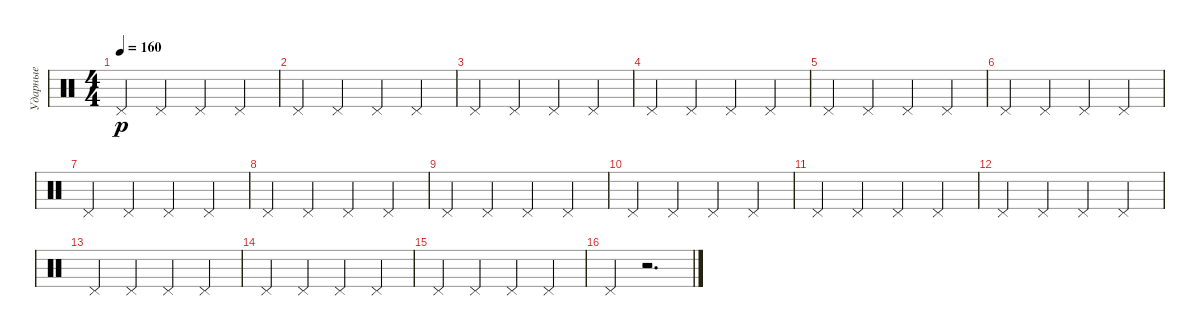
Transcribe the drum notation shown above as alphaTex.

\track ("Ударные" "Ударные") {instrument percussion}
\staff {score}
\articulation defaults
\ts (4 4)
\tempo 160
\clef neutral
\ks c "Pedal Hi-Hat (hit)".4{dy p} "Pedal Hi-Hat (hit)".4 "Pedal Hi-Hat (hit)".4 "Pedal Hi-Hat (hit)".4
|
"Pedal Hi-Hat (hit)".4 "Pedal Hi-Hat (hit)".4 "Pedal Hi-Hat (hit)".4 "Pedal Hi-Hat (hit)".4 |
"Pedal Hi-Hat (hit)".4 "Pedal Hi-Hat (hit)".4 "Pedal Hi-Hat (hit)".4 "Pedal Hi-Hat (hit)".4 |
"Pedal Hi-Hat (hit)".4 "Pedal Hi-Hat (hit)".4 "Pedal Hi-Hat (hit)".4 "Pedal Hi-Hat (hit)".4 |
"Pedal Hi-Hat (hit)".4 "Pedal Hi-Hat (hit)".4 "Pedal Hi-Hat (hit)".4 "Pedal Hi-Hat (hit)".4 |
"Pedal Hi-Hat (hit)".4 "Pedal Hi-Hat (hit)".4 "Pedal Hi-Hat (hit)".4 "Pedal Hi-Hat (hit)".4 |
"Pedal Hi-Hat (hit)".4 "Pedal Hi-Hat (hit)".4 "Pedal Hi-Hat (hit)".4 "Pedal Hi-Hat (hit)".4 |
"Pedal Hi-Hat (hit)".4 "Pedal Hi-Hat (hit)".4 "Pedal Hi-Hat (hit)".4 "Pedal Hi-Hat (hit)".4 |
"Pedal Hi-Hat (hit)".4 "Pedal Hi-Hat (hit)".4 "Pedal Hi-Hat (hit)".4 "Pedal Hi-Hat (hit)".4 |
"Pedal Hi-Hat (hit)".4 "Pedal Hi-Hat (hit)".4 "Pedal Hi-Hat (hit)".4 "Pedal Hi-Hat (hit)".4 |
"Pedal Hi-Hat (hit)".4 "Pedal Hi-Hat (hit)".4 "Pedal Hi-Hat (hit)".4 "Pedal Hi-Hat (hit)".4 |
"Pedal Hi-Hat (hit)".4 "Pedal Hi-Hat (hit)".4 "Pedal Hi-Hat (hit)".4 "Pedal Hi-Hat (hit)".4 |
"Pedal Hi-Hat (hit)".4 "Pedal Hi-Hat (hit)".4 "Pedal Hi-Hat (hit)".4 "Pedal Hi-Hat (hit)".4 |
"Pedal Hi-Hat (hit)".4 "Pedal Hi-Hat (hit)".4 "Pedal Hi-Hat (hit)".4 "Pedal Hi-Hat (hit)".4 |
"Pedal Hi-Hat (hit)".4 "Pedal Hi-Hat (hit)".4 "Pedal Hi-Hat (hit)".4 "Pedal Hi-Hat (hit)".4 |
"Pedal Hi-Hat (hit)".4 r.2{d}
